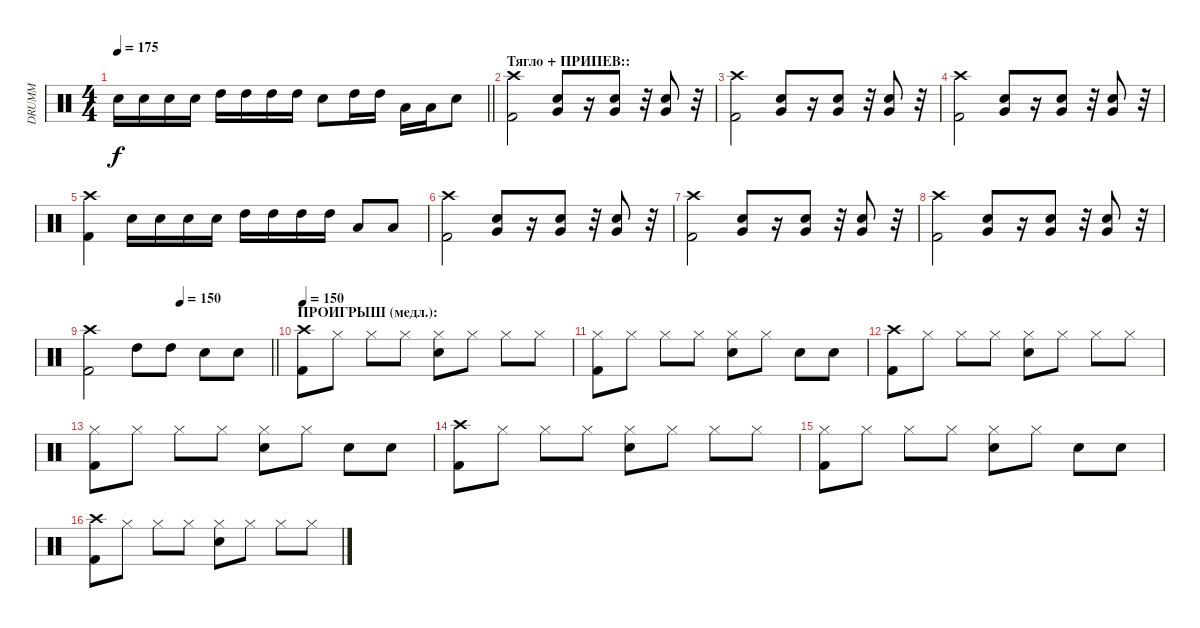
\track ("DRUMM" "DRUMM") {instrument percussion}
\staff {score}
\articulation defaults
\ts (4 4)
\tempo 175
\clef neutral
\barLineRight lightlight
\ks c "Electric Snare (hit)".16{dy f} "Electric Snare (hit)".16 "Electric Snare (hit)".16 "Electric Snare (hit)".16 "High Tom (hit)".16 "High Tom (hit)".16 "High Tom (hit)".16 "High Tom (hit)".16 "Electric Snare (hit)".8 "High Tom (hit)".16 "High Tom (hit)".16 "Low Tom (hit)".16 "Low Tom (hit)".16 "Electric Snare (hit)".8
|
\section ("" "Тягло + ПРИПЕВ::")
("Crash high (hit)" "Kick (hit) 2").2 ("Electric Snare (hit)" "Very Low Tom (hit)").8 r.16 ("Electric Snare (hit)" "Very Low Tom (hit)").8 r.32 ("Electric Snare (hit)" "Very Low Tom (hit)").8 r.32 |
("Crash high (hit)" "Kick (hit) 2").2 ("Electric Snare (hit)" "Very Low Tom (hit)").8 r.16 ("Electric Snare (hit)" "Very Low Tom (hit)").8 r.32 ("Electric Snare (hit)" "Very Low Tom (hit)").8 r.32 |
("Crash high (hit)" "Kick (hit) 2").2 ("Electric Snare (hit)" "Very Low Tom (hit)").8 r.16 ("Electric Snare (hit)" "Very Low Tom (hit)").8 r.32 ("Electric Snare (hit)" "Very Low Tom (hit)").8 r.32 |
("Crash high (hit)" "Kick (hit) 2").4 "Electric Snare (hit)".16 "Electric Snare (hit)".16 "Electric Snare (hit)".16 "Electric Snare (hit)".16 "High Tom (hit)".16 "High Tom (hit)".16 "High Tom (hit)".16 "High Tom (hit)".16 "Low Tom (hit)".8 "Low Tom (hit)".8 |
("Crash high (hit)" "Kick (hit) 2").2 ("Electric Snare (hit)" "Very Low Tom (hit)").8 r.16 ("Electric Snare (hit)" "Very Low Tom (hit)").8 r.32 ("Electric Snare (hit)" "Very Low Tom (hit)").8 r.32 |
("Crash high (hit)" "Kick (hit) 2").2 ("Electric Snare (hit)" "Very Low Tom (hit)").8 r.16 ("Electric Snare (hit)" "Very Low Tom (hit)").8 r.32 ("Electric Snare (hit)" "Very Low Tom (hit)").8 r.32 |
("Crash high (hit)" "Kick (hit) 2").2 ("Electric Snare (hit)" "Very Low Tom (hit)").8 r.16 ("Electric Snare (hit)" "Very Low Tom (hit)").8 r.32 ("Electric Snare (hit)" "Very Low Tom (hit)").8 r.32 |
\tempo (150 0.5)
\barLineRight lightlight
("Crash high (hit)" "Kick (hit) 2").2 "High Tom (hit)".8 "High Tom (hit)".8 "Electric Snare (hit)".8 "Electric Snare (hit)".8 |
\section ("" "ПРОИГРЫШ (медл.): ")
\tempo 150
("Crash high (hit)" "Kick (hit) 2").8 "Hi-Hat (closed)".8 "Hi-Hat (closed)".8 "Hi-Hat (closed)".8 ("Hi-Hat (closed)" "Electric Snare (hit)").8 "Hi-Hat (closed)".8 "Hi-Hat (closed)".8 "Hi-Hat (closed)".8 |
("Hi-Hat (closed)" "Kick (hit) 2").8 "Hi-Hat (closed)".8 "Hi-Hat (closed)".8 "Hi-Hat (closed)".8 ("Hi-Hat (closed)" "Electric Snare (hit)").8 "Hi-Hat (closed)".8 "Electric Snare (hit)".8 "Electric Snare (hit)".8 |
("Crash high (hit)" "Kick (hit) 2").8 "Hi-Hat (closed)".8 "Hi-Hat (closed)".8 "Hi-Hat (closed)".8 ("Hi-Hat (closed)" "Electric Snare (hit)").8 "Hi-Hat (closed)".8 "Hi-Hat (closed)".8 "Hi-Hat (closed)".8 |
("Hi-Hat (closed)" "Kick (hit) 2").8 "Hi-Hat (closed)".8 "Hi-Hat (closed)".8 "Hi-Hat (closed)".8 ("Hi-Hat (closed)" "Electric Snare (hit)").8 "Hi-Hat (closed)".8 "Electric Snare (hit)".8 "Electric Snare (hit)".8 |
("Crash high (hit)" "Kick (hit) 2").8 "Hi-Hat (closed)".8 "Hi-Hat (closed)".8 "Hi-Hat (closed)".8 ("Hi-Hat (closed)" "Electric Snare (hit)").8 "Hi-Hat (closed)".8 "Hi-Hat (closed)".8 "Hi-Hat (closed)".8 |
("Hi-Hat (closed)" "Kick (hit) 2").8 "Hi-Hat (closed)".8 "Hi-Hat (closed)".8 "Hi-Hat (closed)".8 ("Hi-Hat (closed)" "Electric Snare (hit)").8 "Hi-Hat (closed)".8 "Electric Snare (hit)".8 "Electric Snare (hit)".8 |
("Crash high (hit)" "Kick (hit) 2").8 "Hi-Hat (closed)".8 "Hi-Hat (closed)".8 "Hi-Hat (closed)".8 ("Hi-Hat (closed)" "Electric Snare (hit)").8 "Hi-Hat (closed)".8 "Hi-Hat (closed)".8 "Hi-Hat (closed)".8
